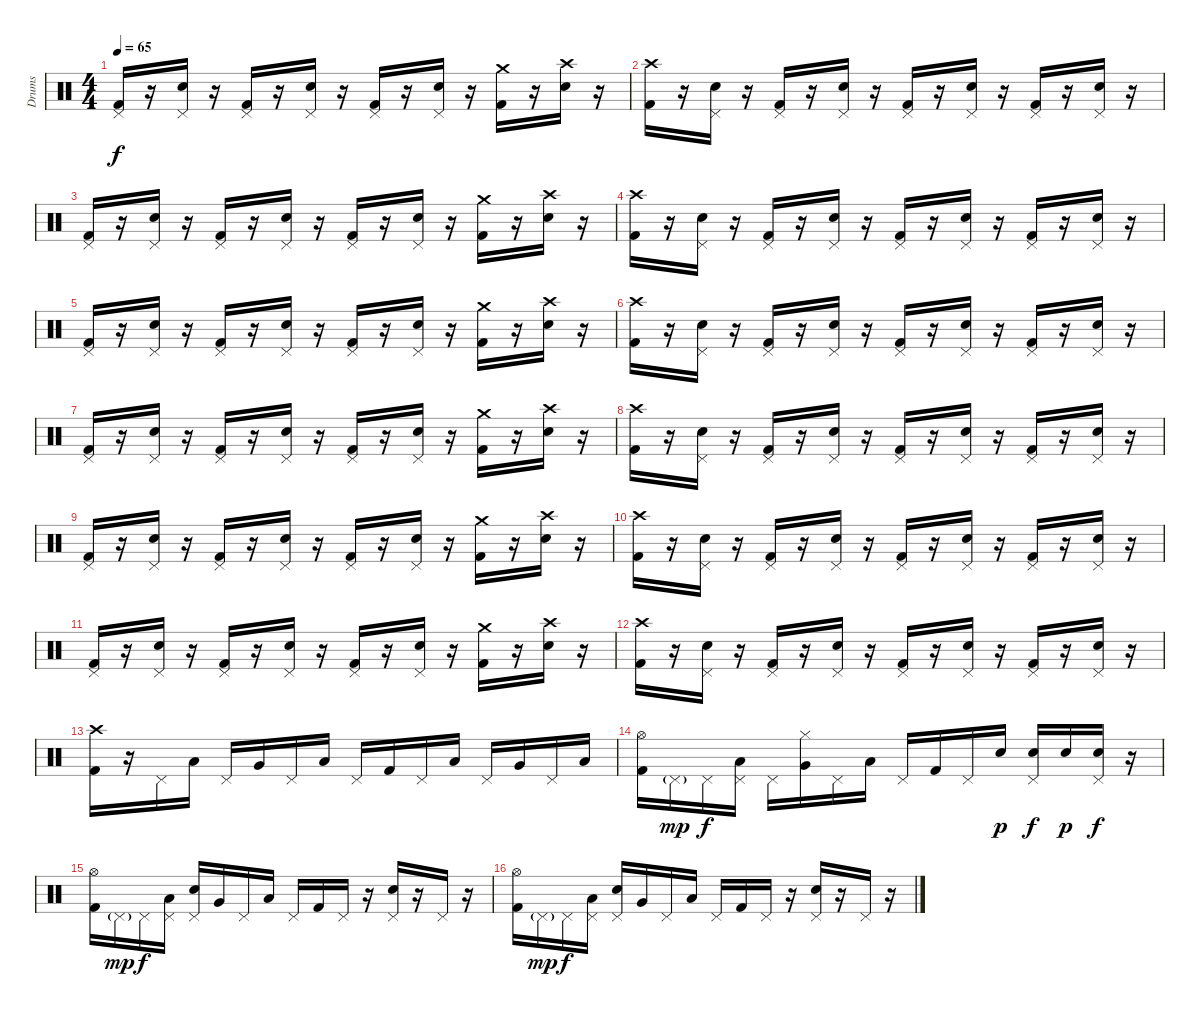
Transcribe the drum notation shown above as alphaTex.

\track ("Drums" "Drums") {instrument percussion}
\staff {score}
\articulation defaults
\ts (4 4)
\tempo 65
\clef neutral
\ks c
("Pedal Hi-Hat (hit)" "Kick (hit) 2").16{dy f} r.16 ("Pedal Hi-Hat (hit)" "Snare (hit) 2").16 r.16 ("Pedal Hi-Hat (hit)" "Kick (hit) 2").16 r.16 ("Pedal Hi-Hat (hit)" "Snare (hit) 2").16 r.16 ("Pedal Hi-Hat (hit)" "Kick (hit) 2").16 r.16 ("Pedal Hi-Hat (hit)" "Snare (hit) 2").16 r.16 ("Crash medium (hit)" "Kick (hit) 2").16 r.16 ("Crash high (hit)" "Snare (hit) 2").16 r.16 |
("Crash high (hit)" "Kick (hit) 2").16 r.16 ("Pedal Hi-Hat (hit)" "Snare (hit) 2").16 r.16 ("Pedal Hi-Hat (hit)" "Kick (hit) 2").16 r.16 ("Pedal Hi-Hat (hit)" "Snare (hit) 2").16 r.16 ("Pedal Hi-Hat (hit)" "Kick (hit) 2").16 r.16 ("Pedal Hi-Hat (hit)" "Snare (hit) 2").16 r.16 ("Pedal Hi-Hat (hit)" "Kick (hit) 2").16 r.16 ("Pedal Hi-Hat (hit)" "Snare (hit) 2").16 r.16 |
("Pedal Hi-Hat (hit)" "Kick (hit) 2").16 r.16 ("Pedal Hi-Hat (hit)" "Snare (hit) 2").16 r.16 ("Pedal Hi-Hat (hit)" "Kick (hit) 2").16 r.16 ("Pedal Hi-Hat (hit)" "Snare (hit) 2").16 r.16 ("Pedal Hi-Hat (hit)" "Kick (hit) 2").16 r.16 ("Pedal Hi-Hat (hit)" "Snare (hit) 2").16 r.16 ("Crash medium (hit)" "Kick (hit) 2").16 r.16 ("Crash high (hit)" "Snare (hit) 2").16 r.16 |
("Crash high (hit)" "Kick (hit) 2").16 r.16 ("Pedal Hi-Hat (hit)" "Snare (hit) 2").16 r.16 ("Pedal Hi-Hat (hit)" "Kick (hit) 2").16 r.16 ("Pedal Hi-Hat (hit)" "Snare (hit) 2").16 r.16 ("Pedal Hi-Hat (hit)" "Kick (hit) 2").16 r.16 ("Pedal Hi-Hat (hit)" "Snare (hit) 2").16 r.16 ("Pedal Hi-Hat (hit)" "Kick (hit) 2").16 r.16 ("Pedal Hi-Hat (hit)" "Snare (hit) 2").16 r.16 |
("Pedal Hi-Hat (hit)" "Kick (hit) 2").16 r.16 ("Pedal Hi-Hat (hit)" "Snare (hit) 2").16 r.16 ("Pedal Hi-Hat (hit)" "Kick (hit) 2").16 r.16 ("Pedal Hi-Hat (hit)" "Snare (hit) 2").16 r.16 ("Pedal Hi-Hat (hit)" "Kick (hit) 2").16 r.16 ("Pedal Hi-Hat (hit)" "Snare (hit) 2").16 r.16 ("Crash medium (hit)" "Kick (hit) 2").16 r.16 ("Crash high (hit)" "Snare (hit) 2").16 r.16 |
("Crash high (hit)" "Kick (hit) 2").16 r.16 ("Pedal Hi-Hat (hit)" "Snare (hit) 2").16 r.16 ("Pedal Hi-Hat (hit)" "Kick (hit) 2").16 r.16 ("Pedal Hi-Hat (hit)" "Snare (hit) 2").16 r.16 ("Pedal Hi-Hat (hit)" "Kick (hit) 2").16 r.16 ("Pedal Hi-Hat (hit)" "Snare (hit) 2").16 r.16 ("Pedal Hi-Hat (hit)" "Kick (hit) 2").16 r.16 ("Pedal Hi-Hat (hit)" "Snare (hit) 2").16 r.16 |
("Pedal Hi-Hat (hit)" "Kick (hit) 2").16 r.16 ("Pedal Hi-Hat (hit)" "Snare (hit) 2").16 r.16 ("Pedal Hi-Hat (hit)" "Kick (hit) 2").16 r.16 ("Pedal Hi-Hat (hit)" "Snare (hit) 2").16 r.16 ("Pedal Hi-Hat (hit)" "Kick (hit) 2").16 r.16 ("Pedal Hi-Hat (hit)" "Snare (hit) 2").16 r.16 ("Crash medium (hit)" "Kick (hit) 2").16 r.16 ("Crash high (hit)" "Snare (hit) 2").16 r.16 |
("Crash high (hit)" "Kick (hit) 2").16 r.16 ("Pedal Hi-Hat (hit)" "Snare (hit) 2").16 r.16 ("Pedal Hi-Hat (hit)" "Kick (hit) 2").16 r.16 ("Pedal Hi-Hat (hit)" "Snare (hit) 2").16 r.16 ("Pedal Hi-Hat (hit)" "Kick (hit) 2").16 r.16 ("Pedal Hi-Hat (hit)" "Snare (hit) 2").16 r.16 ("Pedal Hi-Hat (hit)" "Kick (hit) 2").16 r.16 ("Pedal Hi-Hat (hit)" "Snare (hit) 2").16 r.16 |
("Pedal Hi-Hat (hit)" "Kick (hit) 2").16 r.16 ("Pedal Hi-Hat (hit)" "Snare (hit) 2").16 r.16 ("Pedal Hi-Hat (hit)" "Kick (hit) 2").16 r.16 ("Pedal Hi-Hat (hit)" "Snare (hit) 2").16 r.16 ("Pedal Hi-Hat (hit)" "Kick (hit) 2").16 r.16 ("Pedal Hi-Hat (hit)" "Snare (hit) 2").16 r.16 ("Crash medium (hit)" "Kick (hit) 2").16 r.16 ("Crash high (hit)" "Snare (hit) 2").16 r.16 |
("Crash high (hit)" "Kick (hit) 2").16 r.16 ("Pedal Hi-Hat (hit)" "Snare (hit) 2").16 r.16 ("Pedal Hi-Hat (hit)" "Kick (hit) 2").16 r.16 ("Pedal Hi-Hat (hit)" "Snare (hit) 2").16 r.16 ("Pedal Hi-Hat (hit)" "Kick (hit) 2").16 r.16 ("Pedal Hi-Hat (hit)" "Snare (hit) 2").16 r.16 ("Pedal Hi-Hat (hit)" "Kick (hit) 2").16 r.16 ("Pedal Hi-Hat (hit)" "Snare (hit) 2").16 r.16 |
("Pedal Hi-Hat (hit)" "Kick (hit) 2").16 r.16 ("Pedal Hi-Hat (hit)" "Snare (hit) 2").16 r.16 ("Pedal Hi-Hat (hit)" "Kick (hit) 2").16 r.16 ("Pedal Hi-Hat (hit)" "Snare (hit) 2").16 r.16 ("Pedal Hi-Hat (hit)" "Kick (hit) 2").16 r.16 ("Pedal Hi-Hat (hit)" "Snare (hit) 2").16 r.16 ("Crash medium (hit)" "Kick (hit) 2").16 r.16 ("Crash high (hit)" "Snare (hit) 2").16 r.16 |
("Crash high (hit)" "Kick (hit) 2").16 r.16 ("Pedal Hi-Hat (hit)" "Snare (hit) 2").16 r.16 ("Pedal Hi-Hat (hit)" "Kick (hit) 2").16 r.16 ("Pedal Hi-Hat (hit)" "Snare (hit) 2").16 r.16 ("Pedal Hi-Hat (hit)" "Kick (hit) 2").16 r.16 ("Pedal Hi-Hat (hit)" "Snare (hit) 2").16 r.16 ("Pedal Hi-Hat (hit)" "Kick (hit) 2").16 r.16 ("Pedal Hi-Hat (hit)" "Snare (hit) 2").16 r.16 |
("Crash high (hit)" "Kick (hit) 2").16 r.16 "Pedal Hi-Hat (hit)".16 "Low Tom (hit)".16 "Pedal Hi-Hat (hit)".16 "Very Low Tom (hit)".16 "Pedal Hi-Hat (hit)".16 "Low Floor Tom (hit)".16 "Pedal Hi-Hat (hit)".16 "Kick (hit) 2".16 "Pedal Hi-Hat (hit)".16 "Low Tom (hit)".16 "Pedal Hi-Hat (hit)".16 "Very Low Tom (hit)".16 "Pedal Hi-Hat (hit)".16 "Low Floor Tom (hit)".16 |
("Hi-Hat (open)" "Kick (hit) 2").16 "Pedal Hi-Hat (hit)"{g}.16{dy mp} "Pedal Hi-Hat (hit)".16{dy f} ("Pedal Hi-Hat (hit)" "Low Tom (hit)").16 "Pedal Hi-Hat (hit)".16 ("Hi-Hat (closed)" "Very Low Tom (hit)").16 "Pedal Hi-Hat (hit)".16 "Low Floor Tom (hit)".16 "Pedal Hi-Hat (hit)".16 "Kick (hit) 2".16 "Pedal Hi-Hat (hit)".16 "Snare (hit) 2".16{dy p} ("Pedal Hi-Hat (hit)" "Snare (hit) 2").16{dy f} "Snare (hit) 2".16{dy p} ("Pedal Hi-Hat (hit)" "Snare (hit) 2").16{dy f} r.16 |
("Hi-Hat (open)" "Kick (hit) 2").16 "Pedal Hi-Hat (hit)"{g}.16{dy mp} "Pedal Hi-Hat (hit)".16{dy f} ("Pedal Hi-Hat (hit)" "Low Tom (hit)").16 ("Pedal Hi-Hat (hit)" "Snare (hit) 2").16 "Very Low Tom (hit)".16 "Pedal Hi-Hat (hit)".16 "Low Floor Tom (hit)".16 "Pedal Hi-Hat (hit)".16 "Kick (hit) 2".16 "Pedal Hi-Hat (hit)".16 r.16 ("Pedal Hi-Hat (hit)" "Snare (hit) 2").16 r.16 "Pedal Hi-Hat (hit)".16 r.16 |
("Hi-Hat (open)" "Kick (hit) 2").16 "Pedal Hi-Hat (hit)"{g}.16{dy mp} "Pedal Hi-Hat (hit)".16{dy f} ("Pedal Hi-Hat (hit)" "Low Tom (hit)").16 ("Pedal Hi-Hat (hit)" "Snare (hit) 2").16 "Very Low Tom (hit)".16 "Pedal Hi-Hat (hit)".16 "Low Floor Tom (hit)".16 "Pedal Hi-Hat (hit)".16 "Kick (hit) 2".16 "Pedal Hi-Hat (hit)".16 r.16 ("Pedal Hi-Hat (hit)" "Snare (hit) 2").16 r.16 "Pedal Hi-Hat (hit)".16 r.16
